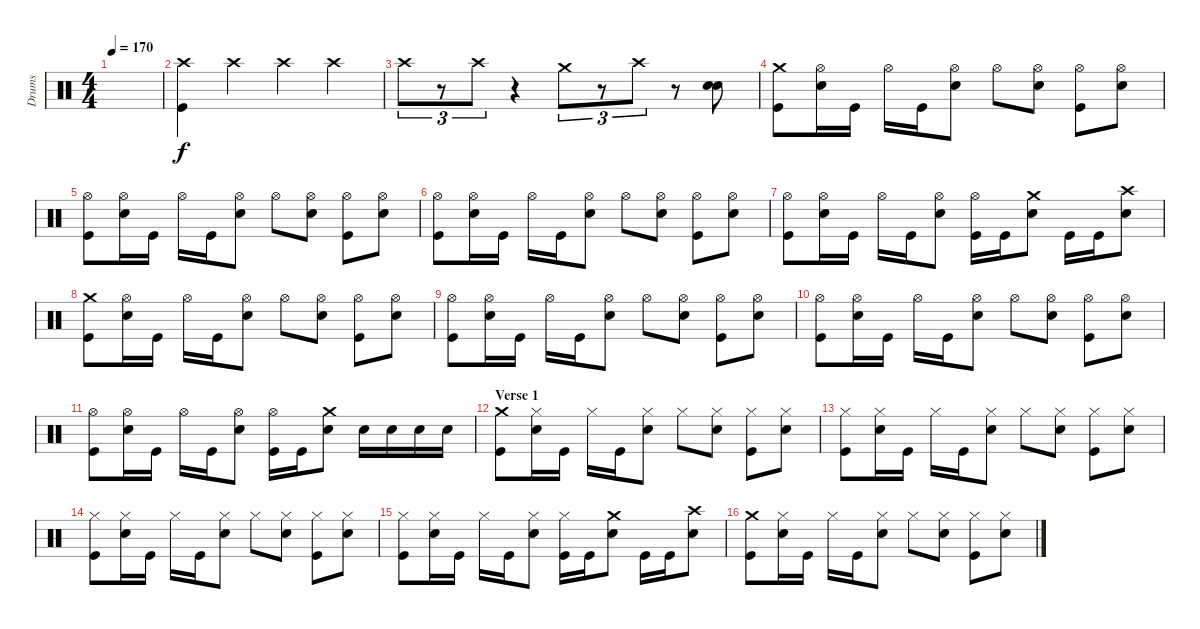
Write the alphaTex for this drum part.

\track ("Drums" "Drums") {instrument percussion}
\staff {score}
\articulation defaults
\ts (4 4)
\tempo 170
\clef neutral
\ks c
|
("Crash high (hit)" "Kick (hit)").4 "Crash high (hit)".4{volume 8} "Crash high (hit)".4 "Crash high (hit)".4 |
"Crash high (hit)".8{tu (3 2) volume 8} r.8{tu (3 2)} "Crash high (hit)".8{tu (3 2)} r.4 "Crash medium (hit)".8{tu (3 2)} r.8{tu (3 2)} "Crash high (hit)".8{tu (3 2)} r.8 ("Snare (hit) 2" "Snare (hit) 2").8{volume 13} |
("Crash medium (hit)" "Kick (hit)").8 ("Hi-Hat (open)" "Snare (hit) 2").16 "Kick (hit)".16 "Hi-Hat (open)".16 "Kick (hit)".16 ("Hi-Hat (open)" "Snare (hit) 2").8 "Hi-Hat (open)".8 ("Hi-Hat (open)" "Snare (hit) 2").8 ("Hi-Hat (open)" "Kick (hit)").8 ("Hi-Hat (open)" "Snare (hit) 2").8 |
("Hi-Hat (open)" "Kick (hit)").8 ("Hi-Hat (open)" "Snare (hit) 2").16 "Kick (hit)".16 "Hi-Hat (open)".16 "Kick (hit)".16 ("Hi-Hat (open)" "Snare (hit) 2").8 "Hi-Hat (open)".8 ("Hi-Hat (open)" "Snare (hit) 2").8 ("Hi-Hat (open)" "Kick (hit)").8 ("Hi-Hat (open)" "Snare (hit) 2").8 |
("Hi-Hat (open)" "Kick (hit)").8 ("Hi-Hat (open)" "Snare (hit) 2").16 "Kick (hit)".16 "Hi-Hat (open)".16 "Kick (hit)".16 ("Hi-Hat (open)" "Snare (hit) 2").8 "Hi-Hat (open)".8 ("Hi-Hat (open)" "Snare (hit) 2").8 ("Hi-Hat (open)" "Kick (hit)").8 ("Hi-Hat (open)" "Snare (hit) 2").8 |
("Hi-Hat (open)" "Kick (hit)").8 ("Hi-Hat (open)" "Snare (hit) 2").16 "Kick (hit)".16 "Hi-Hat (open)".16 "Kick (hit)".16 ("Hi-Hat (open)" "Snare (hit) 2").8 ("Hi-Hat (open)" "Kick (hit)").16 "Kick (hit)".16 ("Crash medium (hit)" "Snare (hit) 2").8 "Kick (hit)".16 "Kick (hit)".16 ("Crash high (hit)" "Snare (hit) 2").8 |
("Crash medium (hit)" "Kick (hit)").8 ("Hi-Hat (open)" "Snare (hit) 2").16 "Kick (hit)".16 "Hi-Hat (open)".16 "Kick (hit)".16 ("Hi-Hat (open)" "Snare (hit) 2").8 "Hi-Hat (open)".8 ("Hi-Hat (open)" "Snare (hit) 2").8 ("Hi-Hat (open)" "Kick (hit)").8 ("Hi-Hat (open)" "Snare (hit) 2").8 |
("Hi-Hat (open)" "Kick (hit)").8 ("Hi-Hat (open)" "Snare (hit) 2").16 "Kick (hit)".16 "Hi-Hat (open)".16 "Kick (hit)".16 ("Hi-Hat (open)" "Snare (hit) 2").8 "Hi-Hat (open)".8 ("Hi-Hat (open)" "Snare (hit) 2").8 ("Hi-Hat (open)" "Kick (hit)").8 ("Hi-Hat (open)" "Snare (hit) 2").8 |
("Hi-Hat (open)" "Kick (hit)").8 ("Hi-Hat (open)" "Snare (hit) 2").16 "Kick (hit)".16 "Hi-Hat (open)".16 "Kick (hit)".16 ("Hi-Hat (open)" "Snare (hit) 2").8 "Hi-Hat (open)".8 ("Hi-Hat (open)" "Snare (hit) 2").8 ("Hi-Hat (open)" "Kick (hit)").8 ("Hi-Hat (open)" "Snare (hit) 2").8 |
("Hi-Hat (open)" "Kick (hit)").8 ("Hi-Hat (open)" "Snare (hit) 2").16 "Kick (hit)".16 "Hi-Hat (open)".16 "Kick (hit)".16 ("Hi-Hat (open)" "Snare (hit) 2").8 ("Hi-Hat (open)" "Kick (hit)").16 "Kick (hit)".16 ("Crash medium (hit)" "Snare (hit) 2").8 "Snare (hit) 2".16 "Snare (hit) 2".16 "Snare (hit) 2".16 "Snare (hit) 2".16 |
\section ("" "Verse 1")
("Crash medium (hit)" "Kick (hit)").8 ("Hi-Hat (closed)" "Snare (hit) 2").16 "Kick (hit)".16 "Hi-Hat (closed)".16 "Kick (hit)".16 ("Hi-Hat (closed)" "Snare (hit) 2").8 "Hi-Hat (closed)".8 ("Hi-Hat (closed)" "Snare (hit) 2").8 ("Hi-Hat (closed)" "Kick (hit)").8 ("Hi-Hat (closed)" "Snare (hit) 2").8 |
("Hi-Hat (closed)" "Kick (hit)").8 ("Hi-Hat (closed)" "Snare (hit) 2").16 "Kick (hit)".16 "Hi-Hat (closed)".16 "Kick (hit)".16 ("Hi-Hat (closed)" "Snare (hit) 2").8 "Hi-Hat (closed)".8 ("Hi-Hat (closed)" "Snare (hit) 2").8 ("Hi-Hat (closed)" "Kick (hit)").8 ("Hi-Hat (closed)" "Snare (hit) 2").8 |
("Hi-Hat (closed)" "Kick (hit)").8 ("Hi-Hat (closed)" "Snare (hit) 2").16 "Kick (hit)".16 "Hi-Hat (closed)".16 "Kick (hit)".16 ("Hi-Hat (closed)" "Snare (hit) 2").8 "Hi-Hat (closed)".8 ("Hi-Hat (closed)" "Snare (hit) 2").8 ("Hi-Hat (closed)" "Kick (hit)").8 ("Hi-Hat (closed)" "Snare (hit) 2").8 |
("Hi-Hat (closed)" "Kick (hit)").8 ("Hi-Hat (closed)" "Snare (hit) 2").16 "Kick (hit)".16 "Hi-Hat (closed)".16 "Kick (hit)".16 ("Hi-Hat (closed)" "Snare (hit) 2").8 ("Hi-Hat (closed)" "Kick (hit)").16 "Kick (hit)".16 ("Crash medium (hit)" "Snare (hit) 2").8 "Kick (hit)".16 "Kick (hit)".16 ("Crash high (hit)" "Snare (hit) 2").8 |
("Crash medium (hit)" "Kick (hit)").8 ("Hi-Hat (closed)" "Snare (hit) 2").16 "Kick (hit)".16 "Hi-Hat (closed)".16 "Kick (hit)".16 ("Hi-Hat (closed)" "Snare (hit) 2").8 "Hi-Hat (closed)".8 ("Hi-Hat (closed)" "Snare (hit) 2").8 ("Hi-Hat (closed)" "Kick (hit)").8 ("Hi-Hat (closed)" "Snare (hit) 2").8
